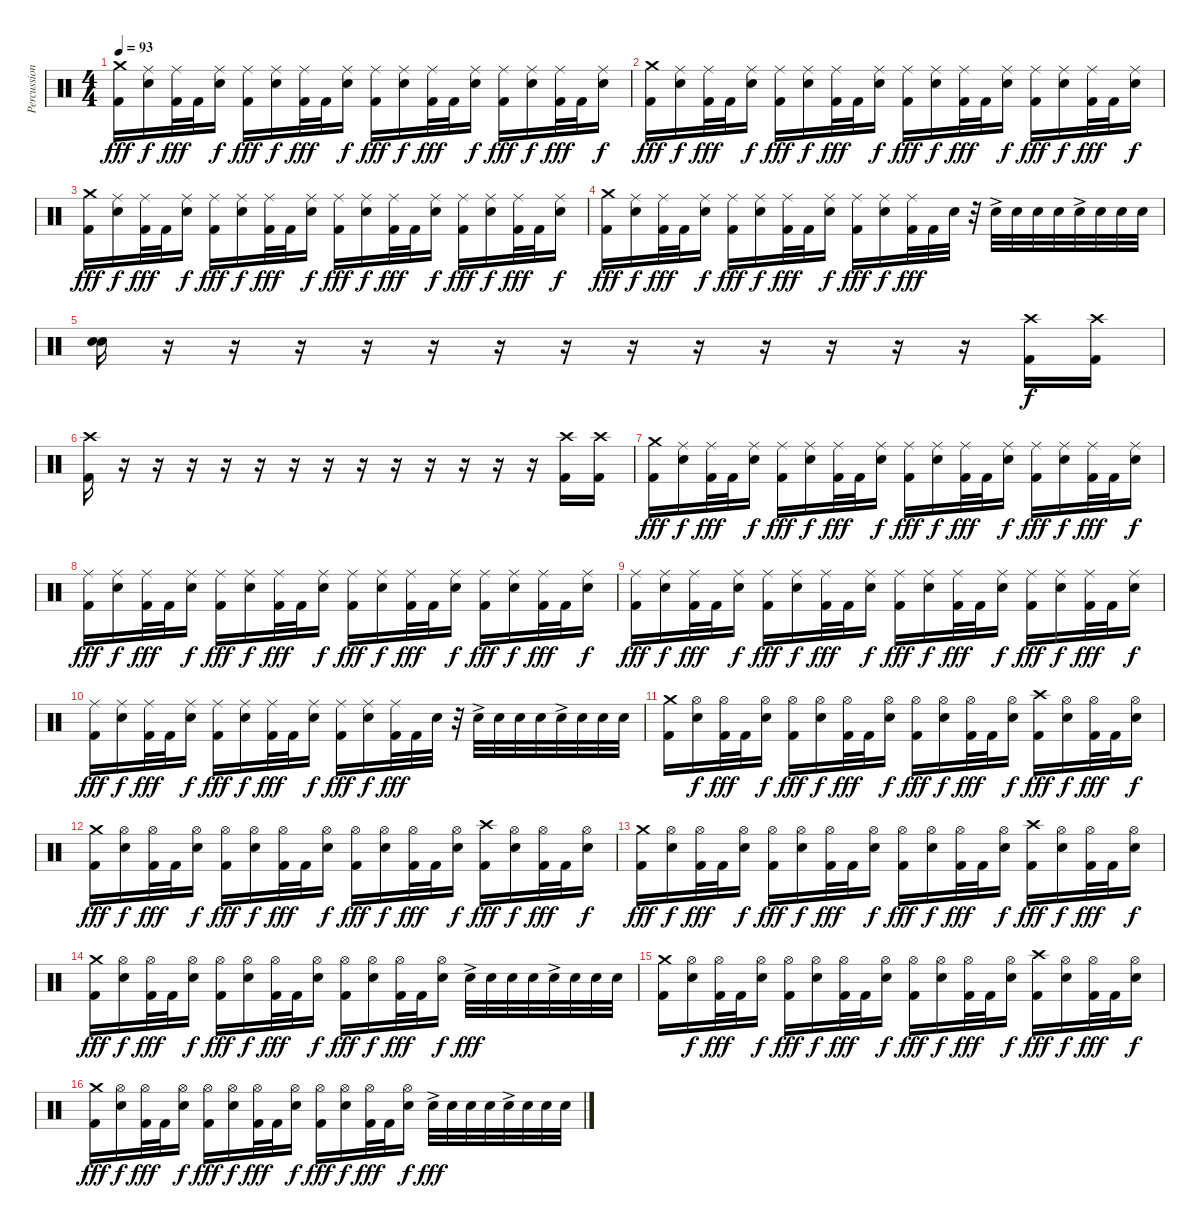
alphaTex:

\track ("Percussion" "Percussion") {instrument percussion}
\staff {score}
\articulation defaults
\ts (4 4)
\tempo 93
\clef neutral
\ks c
("Crash medium (hit)" "Kick (hit) 2").16{dy fff} ("Ride (middle)" "Snare (hit) 2").16{dy f} ("Ride (middle)" "Kick (hit) 2").32{dy fff} "Kick (hit) 2".32 ("Ride (middle)" "Snare (hit) 2").16{dy f} ("Ride (middle)" "Kick (hit) 2").16{dy fff} ("Ride (middle)" "Snare (hit) 2").16{dy f} ("Ride (middle)" "Kick (hit) 2").32{dy fff} "Kick (hit) 2".32 ("Ride (middle)" "Snare (hit) 2").16{dy f} ("Ride (middle)" "Kick (hit) 2").16{dy fff} ("Ride (middle)" "Snare (hit) 2").16{dy f} ("Ride (middle)" "Kick (hit) 2").32{dy fff} "Kick (hit) 2".32 ("Ride (middle)" "Snare (hit) 2").16{dy f} ("Ride (middle)" "Kick (hit) 2").16{dy fff} ("Ride (middle)" "Snare (hit) 2").16{dy f} ("Ride (middle)" "Kick (hit) 2").32{dy fff} "Kick (hit) 2".32 ("Ride (middle)" "Snare (hit) 2").16{dy f} |
("Crash medium (hit)" "Kick (hit) 2").16{dy fff} ("Ride (middle)" "Snare (hit) 2").16{dy f} ("Ride (middle)" "Kick (hit) 2").32{dy fff} "Kick (hit) 2".32 ("Ride (middle)" "Snare (hit) 2").16{dy f} ("Ride (middle)" "Kick (hit) 2").16{dy fff} ("Ride (middle)" "Snare (hit) 2").16{dy f} ("Ride (middle)" "Kick (hit) 2").32{dy fff} "Kick (hit) 2".32 ("Ride (middle)" "Snare (hit) 2").16{dy f} ("Ride (middle)" "Kick (hit) 2").16{dy fff} ("Ride (middle)" "Snare (hit) 2").16{dy f} ("Ride (middle)" "Kick (hit) 2").32{dy fff} "Kick (hit) 2".32 ("Ride (middle)" "Snare (hit) 2").16{dy f} ("Ride (middle)" "Kick (hit) 2").16{dy fff} ("Ride (middle)" "Snare (hit) 2").16{dy f} ("Ride (middle)" "Kick (hit) 2").32{dy fff} "Kick (hit) 2".32 ("Ride (middle)" "Snare (hit) 2").16{dy f} |
("Crash medium (hit)" "Kick (hit) 2").16{dy fff} ("Ride (middle)" "Snare (hit) 2").16{dy f} ("Ride (middle)" "Kick (hit) 2").32{dy fff} "Kick (hit) 2".32 ("Ride (middle)" "Snare (hit) 2").16{dy f} ("Ride (middle)" "Kick (hit) 2").16{dy fff} ("Ride (middle)" "Snare (hit) 2").16{dy f} ("Ride (middle)" "Kick (hit) 2").32{dy fff} "Kick (hit) 2".32 ("Ride (middle)" "Snare (hit) 2").16{dy f} ("Ride (middle)" "Kick (hit) 2").16{dy fff} ("Ride (middle)" "Snare (hit) 2").16{dy f} ("Ride (middle)" "Kick (hit) 2").32{dy fff} "Kick (hit) 2".32 ("Ride (middle)" "Snare (hit) 2").16{dy f} ("Ride (middle)" "Kick (hit) 2").16{dy fff} ("Ride (middle)" "Snare (hit) 2").16{dy f} ("Ride (middle)" "Kick (hit) 2").32{dy fff} "Kick (hit) 2".32 ("Ride (middle)" "Snare (hit) 2").16{dy f} |
("Crash medium (hit)" "Kick (hit) 2").16{dy fff} ("Ride (middle)" "Snare (hit) 2").16{dy f} ("Ride (middle)" "Kick (hit) 2").32{dy fff} "Kick (hit) 2".32 ("Ride (middle)" "Snare (hit) 2").16{dy f} ("Ride (middle)" "Kick (hit) 2").16{dy fff} ("Ride (middle)" "Snare (hit) 2").16{dy f} ("Ride (middle)" "Kick (hit) 2").32{dy fff} "Kick (hit) 2".32 ("Ride (middle)" "Snare (hit) 2").16{dy f} ("Ride (middle)" "Kick (hit) 2").16{dy fff} ("Ride (middle)" "Snare (hit) 2").16{dy f} ("Ride (middle)" "Kick (hit) 2").32{dy fff} "Kick (hit) 2".32 "Snare (hit) 2".32 r.32 "Snare (hit) 2"{ac}.32 "Snare (hit) 2".32 "Snare (hit) 2".32 "Snare (hit) 2".32 "Snare (hit) 2"{ac}.32 "Snare (hit) 2".32 "Snare (hit) 2".32 "Snare (hit) 2".32 |
("Snare (hit) 2" "Snare (hit) 2").16{bd 480} r.16 r.16 r.16 r.16 r.16 r.16 r.16 r.16 r.16 r.16 r.16 r.16 r.16 ("Crash high (hit)" "Kick (hit) 2").16{dy f} ("Crash high (hit)" "Kick (hit) 2").16 |
("Crash high (hit)" "Kick (hit) 2").16 r.16 r.16 r.16 r.16 r.16 r.16 r.16 r.16 r.16 r.16 r.16 r.16 r.16 ("Crash high (hit)" "Kick (hit) 2").16 ("Crash high (hit)" "Kick (hit) 2").16 |
("Crash medium (hit)" "Kick (hit) 2").16{dy fff} ("Ride (middle)" "Snare (hit) 2").16{dy f} ("Ride (middle)" "Kick (hit) 2").32{dy fff} "Kick (hit) 2".32 ("Ride (middle)" "Snare (hit) 2").16{dy f} ("Ride (middle)" "Kick (hit) 2").16{dy fff} ("Ride (middle)" "Snare (hit) 2").16{dy f} ("Ride (middle)" "Kick (hit) 2").32{dy fff} "Kick (hit) 2".32 ("Ride (middle)" "Snare (hit) 2").16{dy f} ("Ride (middle)" "Kick (hit) 2").16{dy fff} ("Ride (middle)" "Snare (hit) 2").16{dy f} ("Ride (middle)" "Kick (hit) 2").32{dy fff} "Kick (hit) 2".32 ("Ride (middle)" "Snare (hit) 2").16{dy f} ("Ride (middle)" "Kick (hit) 2").16{dy fff} ("Ride (middle)" "Snare (hit) 2").16{dy f} ("Ride (middle)" "Kick (hit) 2").32{dy fff} "Kick (hit) 2".32 ("Ride (middle)" "Snare (hit) 2").16{dy f} |
("Ride (middle)" "Kick (hit) 2").16{dy fff} ("Ride (middle)" "Snare (hit) 2").16{dy f} ("Ride (middle)" "Kick (hit) 2").32{dy fff} "Kick (hit) 2".32 ("Ride (middle)" "Snare (hit) 2").16{dy f} ("Ride (middle)" "Kick (hit) 2").16{dy fff} ("Ride (middle)" "Snare (hit) 2").16{dy f} ("Ride (middle)" "Kick (hit) 2").32{dy fff} "Kick (hit) 2".32 ("Ride (middle)" "Snare (hit) 2").16{dy f} ("Ride (middle)" "Kick (hit) 2").16{dy fff} ("Ride (middle)" "Snare (hit) 2").16{dy f} ("Ride (middle)" "Kick (hit) 2").32{dy fff} "Kick (hit) 2".32 ("Ride (middle)" "Snare (hit) 2").16{dy f} ("Ride (middle)" "Kick (hit) 2").16{dy fff} ("Ride (middle)" "Snare (hit) 2").16{dy f} ("Ride (middle)" "Kick (hit) 2").32{dy fff} "Kick (hit) 2".32 ("Ride (middle)" "Snare (hit) 2").16{dy f} |
("Ride (middle)" "Kick (hit) 2").16{dy fff} ("Ride (middle)" "Snare (hit) 2").16{dy f} ("Ride (middle)" "Kick (hit) 2").32{dy fff} "Kick (hit) 2".32 ("Ride (middle)" "Snare (hit) 2").16{dy f} ("Ride (middle)" "Kick (hit) 2").16{dy fff} ("Ride (middle)" "Snare (hit) 2").16{dy f} ("Ride (middle)" "Kick (hit) 2").32{dy fff} "Kick (hit) 2".32 ("Ride (middle)" "Snare (hit) 2").16{dy f} ("Ride (middle)" "Kick (hit) 2").16{dy fff} ("Ride (middle)" "Snare (hit) 2").16{dy f} ("Ride (middle)" "Kick (hit) 2").32{dy fff} "Kick (hit) 2".32 ("Ride (middle)" "Snare (hit) 2").16{dy f} ("Ride (middle)" "Kick (hit) 2").16{dy fff} ("Ride (middle)" "Snare (hit) 2").16{dy f} ("Ride (middle)" "Kick (hit) 2").32{dy fff} "Kick (hit) 2".32 ("Ride (middle)" "Snare (hit) 2").16{dy f} |
("Ride (middle)" "Kick (hit) 2").16{dy fff} ("Ride (middle)" "Snare (hit) 2").16{dy f} ("Ride (middle)" "Kick (hit) 2").32{dy fff} "Kick (hit) 2".32 ("Ride (middle)" "Snare (hit) 2").16{dy f} ("Ride (middle)" "Kick (hit) 2").16{dy fff} ("Ride (middle)" "Snare (hit) 2").16{dy f} ("Ride (middle)" "Kick (hit) 2").32{dy fff} "Kick (hit) 2".32 ("Ride (middle)" "Snare (hit) 2").16{dy f} ("Ride (middle)" "Kick (hit) 2").16{dy fff} ("Ride (middle)" "Snare (hit) 2").16{dy f} ("Ride (middle)" "Kick (hit) 2").32{dy fff} "Kick (hit) 2".32 "Snare (hit) 2".32 r.32 "Snare (hit) 2"{ac}.32 "Snare (hit) 2".32 "Snare (hit) 2".32 "Snare (hit) 2".32 "Snare (hit) 2"{ac}.32 "Snare (hit) 2".32 "Snare (hit) 2".32 "Snare (hit) 2".32 |
("Crash medium (hit)" "Kick (hit) 2").16 ("Hi-Hat (open)" "Snare (hit) 2").16{dy f} ("Hi-Hat (open)" "Kick (hit) 2").32{dy fff} "Kick (hit) 2".32 ("Hi-Hat (open)" "Snare (hit) 2").16{dy f} ("Hi-Hat (open)" "Kick (hit) 2").16{dy fff} ("Hi-Hat (open)" "Snare (hit) 2").16{dy f} ("Hi-Hat (open)" "Kick (hit) 2").32{dy fff} "Kick (hit) 2".32 ("Hi-Hat (open)" "Snare (hit) 2").16{dy f} ("Hi-Hat (open)" "Kick (hit) 2").16{dy fff} ("Hi-Hat (open)" "Snare (hit) 2").16{dy f} ("Hi-Hat (open)" "Kick (hit) 2").32{dy fff} "Kick (hit) 2".32 ("Hi-Hat (open)" "Snare (hit) 2").16{dy f} ("Crash high (hit)" "Kick (hit) 2").16{dy fff} ("Hi-Hat (open)" "Snare (hit) 2").16{dy f} ("Hi-Hat (open)" "Kick (hit) 2").32{dy fff} "Kick (hit) 2".32 ("Hi-Hat (open)" "Snare (hit) 2").16{dy f} |
("Crash medium (hit)" "Kick (hit) 2").16{dy fff} ("Hi-Hat (open)" "Snare (hit) 2").16{dy f} ("Hi-Hat (open)" "Kick (hit) 2").32{dy fff} "Kick (hit) 2".32 ("Hi-Hat (open)" "Snare (hit) 2").16{dy f} ("Hi-Hat (open)" "Kick (hit) 2").16{dy fff} ("Hi-Hat (open)" "Snare (hit) 2").16{dy f} ("Hi-Hat (open)" "Kick (hit) 2").32{dy fff} "Kick (hit) 2".32 ("Hi-Hat (open)" "Snare (hit) 2").16{dy f} ("Hi-Hat (open)" "Kick (hit) 2").16{dy fff} ("Hi-Hat (open)" "Snare (hit) 2").16{dy f} ("Hi-Hat (open)" "Kick (hit) 2").32{dy fff} "Kick (hit) 2".32 ("Hi-Hat (open)" "Snare (hit) 2").16{dy f} ("Crash high (hit)" "Kick (hit) 2").16{dy fff} ("Hi-Hat (open)" "Snare (hit) 2").16{dy f} ("Hi-Hat (open)" "Kick (hit) 2").32{dy fff} "Kick (hit) 2".32 ("Hi-Hat (open)" "Snare (hit) 2").16{dy f} |
("Crash medium (hit)" "Kick (hit) 2").16{dy fff} ("Hi-Hat (open)" "Snare (hit) 2").16{dy f} ("Hi-Hat (open)" "Kick (hit) 2").32{dy fff} "Kick (hit) 2".32 ("Hi-Hat (open)" "Snare (hit) 2").16{dy f} ("Hi-Hat (open)" "Kick (hit) 2").16{dy fff} ("Hi-Hat (open)" "Snare (hit) 2").16{dy f} ("Hi-Hat (open)" "Kick (hit) 2").32{dy fff} "Kick (hit) 2".32 ("Hi-Hat (open)" "Snare (hit) 2").16{dy f} ("Hi-Hat (open)" "Kick (hit) 2").16{dy fff} ("Hi-Hat (open)" "Snare (hit) 2").16{dy f} ("Hi-Hat (open)" "Kick (hit) 2").32{dy fff} "Kick (hit) 2".32 ("Hi-Hat (open)" "Snare (hit) 2").16{dy f} ("Crash high (hit)" "Kick (hit) 2").16{dy fff} ("Hi-Hat (open)" "Snare (hit) 2").16{dy f} ("Hi-Hat (open)" "Kick (hit) 2").32{dy fff} "Kick (hit) 2".32 ("Hi-Hat (open)" "Snare (hit) 2").16{dy f} |
("Crash medium (hit)" "Kick (hit) 2").16{dy fff} ("Hi-Hat (open)" "Snare (hit) 2").16{dy f} ("Hi-Hat (open)" "Kick (hit) 2").32{dy fff} "Kick (hit) 2".32 ("Hi-Hat (open)" "Snare (hit) 2").16{dy f} ("Hi-Hat (open)" "Kick (hit) 2").16{dy fff} ("Hi-Hat (open)" "Snare (hit) 2").16{dy f} ("Hi-Hat (open)" "Kick (hit) 2").32{dy fff} "Kick (hit) 2".32 ("Hi-Hat (open)" "Snare (hit) 2").16{dy f} ("Hi-Hat (open)" "Kick (hit) 2").16{dy fff} ("Hi-Hat (open)" "Snare (hit) 2").16{dy f} ("Hi-Hat (open)" "Kick (hit) 2").32{dy fff} "Kick (hit) 2".32 ("Hi-Hat (open)" "Snare (hit) 2").16{dy f} "Snare (hit) 2"{ac}.32{dy fff} "Snare (hit) 2".32 "Snare (hit) 2".32 "Snare (hit) 2".32 "Snare (hit) 2"{ac}.32 "Snare (hit) 2".32 "Snare (hit) 2".32 "Snare (hit) 2".32 |
("Crash medium (hit)" "Kick (hit) 2").16 ("Hi-Hat (open)" "Snare (hit) 2").16{dy f} ("Hi-Hat (open)" "Kick (hit) 2").32{dy fff} "Kick (hit) 2".32 ("Hi-Hat (open)" "Snare (hit) 2").16{dy f} ("Hi-Hat (open)" "Kick (hit) 2").16{dy fff} ("Hi-Hat (open)" "Snare (hit) 2").16{dy f} ("Hi-Hat (open)" "Kick (hit) 2").32{dy fff} "Kick (hit) 2".32 ("Hi-Hat (open)" "Snare (hit) 2").16{dy f} ("Hi-Hat (open)" "Kick (hit) 2").16{dy fff} ("Hi-Hat (open)" "Snare (hit) 2").16{dy f} ("Hi-Hat (open)" "Kick (hit) 2").32{dy fff} "Kick (hit) 2".32 ("Hi-Hat (open)" "Snare (hit) 2").16{dy f} ("Crash high (hit)" "Kick (hit) 2").16{dy fff} ("Hi-Hat (open)" "Snare (hit) 2").16{dy f} ("Hi-Hat (open)" "Kick (hit) 2").32{dy fff} "Kick (hit) 2".32 ("Hi-Hat (open)" "Snare (hit) 2").16{dy f} |
("Crash medium (hit)" "Kick (hit) 2").16{dy fff} ("Hi-Hat (open)" "Snare (hit) 2").16{dy f} ("Hi-Hat (open)" "Kick (hit) 2").32{dy fff} "Kick (hit) 2".32 ("Hi-Hat (open)" "Snare (hit) 2").16{dy f} ("Hi-Hat (open)" "Kick (hit) 2").16{dy fff} ("Hi-Hat (open)" "Snare (hit) 2").16{dy f} ("Hi-Hat (open)" "Kick (hit) 2").32{dy fff} "Kick (hit) 2".32 ("Hi-Hat (open)" "Snare (hit) 2").16{dy f} ("Hi-Hat (open)" "Kick (hit) 2").16{dy fff} ("Hi-Hat (open)" "Snare (hit) 2").16{dy f} ("Hi-Hat (open)" "Kick (hit) 2").32{dy fff} "Kick (hit) 2".32 ("Hi-Hat (open)" "Snare (hit) 2").16{dy f} "Snare (hit) 2"{ac}.32{dy fff} "Snare (hit) 2".32 "Snare (hit) 2".32 "Snare (hit) 2".32 "Snare (hit) 2"{ac}.32 "Snare (hit) 2".32 "Snare (hit) 2".32 "Snare (hit) 2".32
